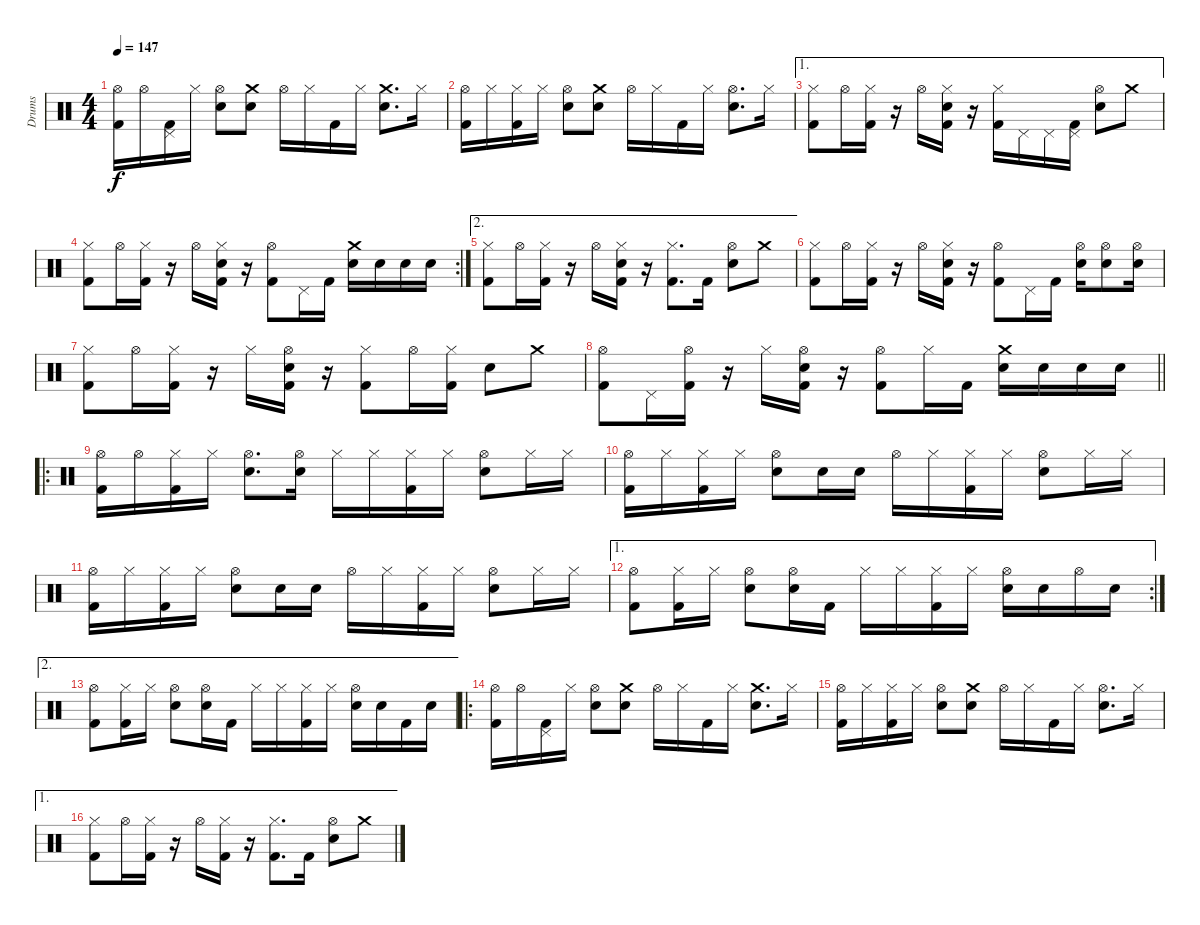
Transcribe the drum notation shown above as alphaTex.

\track ("Drums" "Drums") {instrument percussion}
\staff {score}
\articulation defaults
\ts (4 4)
\tempo 147
\clef neutral
\ks c
("Hi-Hat (open)" "Kick (hit) 2").16{dy f} "Hi-Hat (open)".16 ("Pedal Hi-Hat (hit)" "Kick (hit) 2").16 "Hi-Hat (closed)".16 ("Hi-Hat (open)" "Electric Snare (hit)").8 ("Crash medium (hit)" "Electric Snare (hit)").8 "Hi-Hat (open)".16 "Hi-Hat (closed)".16 "Kick (hit) 2".16 "Hi-Hat (closed)".16 ("Crash medium (hit)" "Electric Snare (hit)").8{d} "Hi-Hat (closed)".16 |
("Hi-Hat (open)" "Kick (hit) 2").16 "Hi-Hat (closed)".16 ("Hi-Hat (closed)" "Kick (hit) 2").16 "Hi-Hat (closed)".16 ("Hi-Hat (open)" "Electric Snare (hit)").8 ("Crash medium (hit)" "Electric Snare (hit)").8 "Hi-Hat (open)".16 "Hi-Hat (closed)".16 "Kick (hit) 2".16 "Hi-Hat (closed)".16 ("Hi-Hat (open)" "Electric Snare (hit)").8{d} "Hi-Hat (closed)".16 |
\ae 1
("Hi-Hat (closed)" "Kick (hit) 2").8 "Hi-Hat (open)".16 ("Hi-Hat (closed)" "Kick (hit) 2").16 r.16 "Hi-Hat (open)".16 ("Hi-Hat (closed)" "Electric Snare (hit)" "Kick (hit) 2").16 r.16 ("Hi-Hat (closed)" "Kick (hit) 2").16 "Pedal Hi-Hat (hit)".16 "Pedal Hi-Hat (hit)".16 ("Pedal Hi-Hat (hit)" "Kick (hit) 2").16 ("Hi-Hat (open)" "Electric Snare (hit)").8 "Crash medium (hit)".8 |
\rc 2
("Hi-Hat (closed)" "Kick (hit) 2").8 "Hi-Hat (open)".16 ("Hi-Hat (closed)" "Kick (hit) 2").16 r.16 "Hi-Hat (open)".16 ("Hi-Hat (closed)" "Electric Snare (hit)" "Kick (hit) 2").16 r.16 ("Hi-Hat (open)" "Kick (hit) 2").8 "Pedal Hi-Hat (hit)".16 "Kick (hit) 2".16 ("Crash medium (hit)" "Electric Snare (hit)").16 "Electric Snare (hit)".16 "Electric Snare (hit)".16 "Electric Snare (hit)".16 |
\ae 2
("Hi-Hat (closed)" "Kick (hit) 2").8 "Hi-Hat (open)".16 ("Hi-Hat (closed)" "Kick (hit) 2").16 r.16 "Hi-Hat (open)".16 ("Hi-Hat (closed)" "Electric Snare (hit)" "Kick (hit) 2").16 r.16 ("Hi-Hat (closed)" "Kick (hit) 2").8{d} "Kick (hit) 2".16 ("Hi-Hat (open)" "Electric Snare (hit)").8 "Crash medium (hit)".8 |
("Hi-Hat (closed)" "Kick (hit) 2").8 "Hi-Hat (open)".16 ("Hi-Hat (closed)" "Kick (hit) 2").16 r.16 "Hi-Hat (open)".16 ("Hi-Hat (closed)" "Electric Snare (hit)" "Kick (hit) 2").16 r.16 ("Hi-Hat (open)" "Kick (hit) 2").8 "Pedal Hi-Hat (hit)".16 "Kick (hit) 2".16 ("Hi-Hat (open)" "Electric Snare (hit)").16 ("Hi-Hat (open)" "Electric Snare (hit)").8 ("Hi-Hat (open)" "Electric Snare (hit)").16 |
("Hi-Hat (closed)" "Kick (hit) 2").8 "Hi-Hat (open)".16 ("Hi-Hat (closed)" "Kick (hit) 2").16 r.16 "Hi-Hat (closed)".16 ("Hi-Hat (open)" "Electric Snare (hit)" "Kick (hit) 2").16 r.16 ("Hi-Hat (closed)" "Kick (hit) 2").8 "Hi-Hat (open)".16 ("Hi-Hat (closed)" "Kick (hit) 2").16 "Electric Snare (hit)".8 "Crash medium (hit)".8 |
\barLineRight lightlight
("Hi-Hat (open)" "Kick (hit) 2").8 "Pedal Hi-Hat (hit)".16 ("Hi-Hat (open)" "Kick (hit) 2").16 r.16 "Hi-Hat (closed)".16 ("Hi-Hat (open)" "Electric Snare (hit)" "Kick (hit) 2").16 r.16 ("Hi-Hat (open)" "Kick (hit) 2").8 "Hi-Hat (closed)".16 "Kick (hit) 2".16 ("Crash medium (hit)" "Electric Snare (hit)").16 "Electric Snare (hit)".16 "Electric Snare (hit)".16 "Electric Snare (hit)".16 |
\ro
("Hi-Hat (open)" "Kick (hit) 2").16 "Hi-Hat (open)".16 ("Hi-Hat (closed)" "Kick (hit) 2").16 "Hi-Hat (closed)".16 ("Hi-Hat (open)" "Electric Snare (hit)").8{d} ("Hi-Hat (open)" "Electric Snare (hit)").16 "Hi-Hat (closed)".16 "Hi-Hat (closed)".16 ("Hi-Hat (closed)" "Kick (hit) 2").16 "Hi-Hat (closed)".16 ("Hi-Hat (open)" "Electric Snare (hit)").8 "Hi-Hat (closed)".16 "Hi-Hat (closed)".16 |
("Hi-Hat (open)" "Kick (hit) 2").16 "Hi-Hat (closed)".16 ("Hi-Hat (closed)" "Kick (hit) 2").16 "Hi-Hat (closed)".16 ("Hi-Hat (open)" "Electric Snare (hit)").8 "Electric Snare (hit)".16 "Electric Snare (hit)".16 "Hi-Hat (open)".16 "Hi-Hat (closed)".16 ("Hi-Hat (closed)" "Kick (hit) 2").16 "Hi-Hat (closed)".16 ("Hi-Hat (open)" "Electric Snare (hit)").8 "Hi-Hat (closed)".16 "Hi-Hat (closed)".16 |
("Hi-Hat (open)" "Kick (hit) 2").16 "Hi-Hat (closed)".16 ("Hi-Hat (closed)" "Kick (hit) 2").16 "Hi-Hat (closed)".16 ("Hi-Hat (open)" "Electric Snare (hit)").8 "Electric Snare (hit)".16 "Electric Snare (hit)".16 "Hi-Hat (open)".16 "Hi-Hat (closed)".16 ("Hi-Hat (closed)" "Kick (hit) 2").16 "Hi-Hat (closed)".16 ("Hi-Hat (open)" "Electric Snare (hit)").8 "Hi-Hat (closed)".16 "Hi-Hat (closed)".16 |
\ae 1
\rc 2
("Hi-Hat (open)" "Kick (hit) 2").8 ("Hi-Hat (closed)" "Kick (hit) 2").16 "Hi-Hat (closed)".16 ("Hi-Hat (open)" "Electric Snare (hit)").8 ("Hi-Hat (open)" "Electric Snare (hit)").16 "Kick (hit) 2".16 "Hi-Hat (closed)".16 "Hi-Hat (closed)".16 ("Hi-Hat (closed)" "Kick (hit) 2").16 "Hi-Hat (closed)".16 ("Hi-Hat (open)" "Electric Snare (hit)").16 "Electric Snare (hit)".16 "Hi-Hat (open)".16 "Electric Snare (hit)".16 |
\ae 2
("Hi-Hat (open)" "Kick (hit) 2").8 ("Hi-Hat (closed)" "Kick (hit) 2").16 "Hi-Hat (closed)".16 ("Hi-Hat (open)" "Electric Snare (hit)").8 ("Hi-Hat (open)" "Electric Snare (hit)").16 "Kick (hit) 2".16 "Hi-Hat (closed)".16 "Hi-Hat (closed)".16 ("Hi-Hat (closed)" "Kick (hit) 2").16 "Hi-Hat (closed)".16 ("Hi-Hat (open)" "Electric Snare (hit)").16 "Electric Snare (hit)".16 "Kick (hit) 2".16 "Electric Snare (hit)".16 |
\ro
("Hi-Hat (open)" "Kick (hit) 2").16 "Hi-Hat (open)".16 ("Pedal Hi-Hat (hit)" "Kick (hit) 2").16 "Hi-Hat (closed)".16 ("Hi-Hat (open)" "Electric Snare (hit)").8 ("Crash medium (hit)" "Electric Snare (hit)").8 "Hi-Hat (open)".16 "Hi-Hat (closed)".16 "Kick (hit) 2".16 "Hi-Hat (closed)".16 ("Crash medium (hit)" "Electric Snare (hit)").8{d} "Hi-Hat (closed)".16 |
("Hi-Hat (open)" "Kick (hit) 2").16 "Hi-Hat (closed)".16 ("Hi-Hat (closed)" "Kick (hit) 2").16 "Hi-Hat (closed)".16 ("Hi-Hat (open)" "Electric Snare (hit)").8 ("Crash medium (hit)" "Electric Snare (hit)").8 "Hi-Hat (open)".16 "Hi-Hat (closed)".16 "Kick (hit) 2".16 "Hi-Hat (closed)".16 ("Hi-Hat (open)" "Electric Snare (hit)").8{d} "Hi-Hat (closed)".16 |
\ae 1
("Hi-Hat (closed)" "Kick (hit) 2").8 "Hi-Hat (open)".16 ("Hi-Hat (closed)" "Kick (hit) 2").16 r.16 "Hi-Hat (open)".16 ("Hi-Hat (closed)" "Kick (hit) 2").16 r.16 ("Hi-Hat (closed)" "Kick (hit) 2").8{d} "Kick (hit) 2".16 ("Hi-Hat (open)" "Electric Snare (hit)").8 "Crash medium (hit)".8
